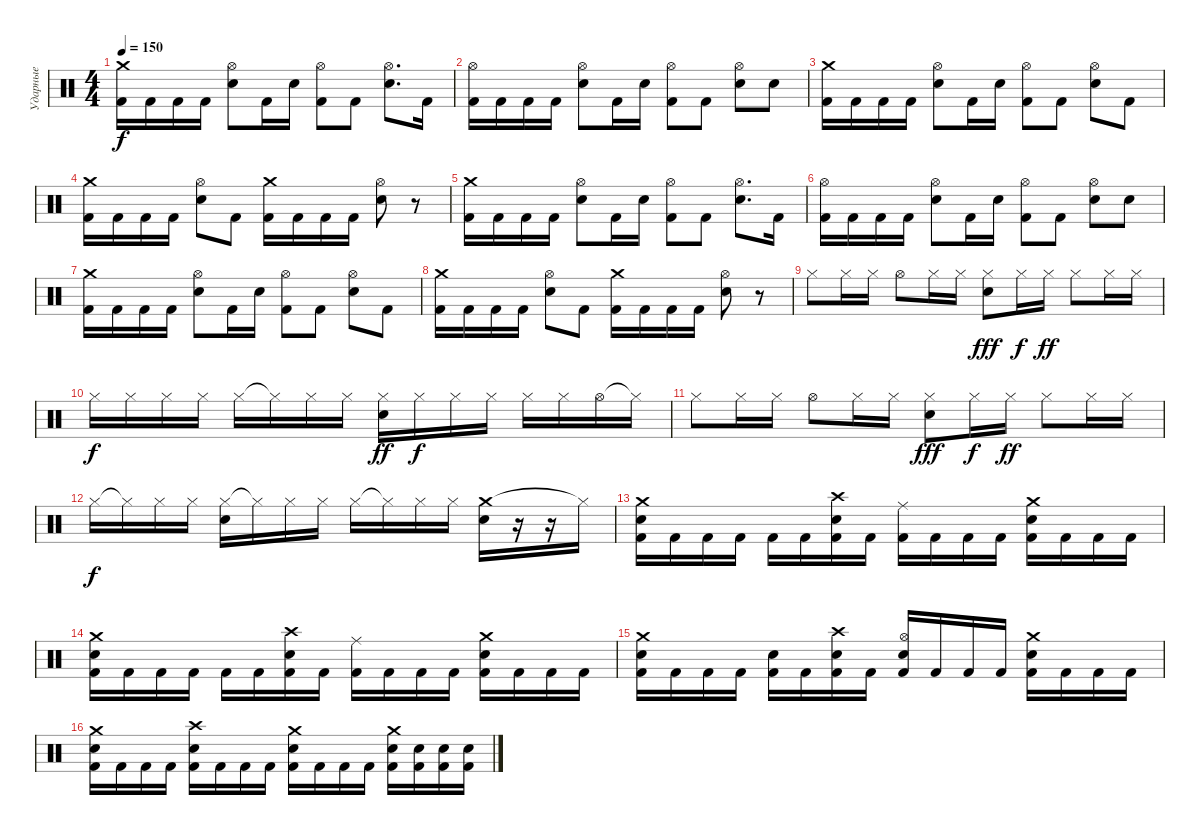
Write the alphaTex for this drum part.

\track ("Ударные" "Ударные") {instrument percussion}
\staff {score}
\articulation defaults
\ts (4 4)
\tempo 150
\clef neutral
\ks c
("Crash medium (hit)" "Kick (hit) 2").16{dy f} "Kick (hit) 2".16 "Kick (hit) 2".16 "Kick (hit) 2".16 ("Hi-Hat (open)" "Snare (hit) 2").8 "Kick (hit) 2".16 "Snare (hit) 2".16 ("Hi-Hat (open)" "Kick (hit) 2").8 "Kick (hit) 2".8 ("Hi-Hat (open)" "Snare (hit) 2").8{d} "Kick (hit) 2".16 |
("Hi-Hat (open)" "Kick (hit) 2").16 "Kick (hit) 2".16 "Kick (hit) 2".16 "Kick (hit) 2".16 ("Hi-Hat (open)" "Snare (hit) 2").8 "Kick (hit) 2".16 "Snare (hit) 2".16 ("Hi-Hat (open)" "Kick (hit) 2").8 "Kick (hit) 2".8 ("Hi-Hat (open)" "Snare (hit) 2").8 "Snare (hit) 2".8 |
("Crash medium (hit)" "Kick (hit) 2").16 "Kick (hit) 2".16 "Kick (hit) 2".16 "Kick (hit) 2".16 ("Hi-Hat (open)" "Snare (hit) 2").8 "Kick (hit) 2".16 "Snare (hit) 2".16 ("Hi-Hat (open)" "Kick (hit) 2").8 "Kick (hit) 2".8 ("Hi-Hat (open)" "Snare (hit) 2").8 "Kick (hit) 2".8 |
("Crash medium (hit)" "Kick (hit) 2").16 "Kick (hit) 2".16 "Kick (hit) 2".16 "Kick (hit) 2".16 ("Hi-Hat (open)" "Snare (hit) 2").8 "Kick (hit) 2".8 ("Crash medium (hit)" "Kick (hit) 2").16 "Kick (hit) 2".16 "Kick (hit) 2".16 "Kick (hit) 2".16 ("Hi-Hat (open)" "Snare (hit) 2").8 r.8 |
("Crash medium (hit)" "Kick (hit) 2").16 "Kick (hit) 2".16 "Kick (hit) 2".16 "Kick (hit) 2".16 ("Hi-Hat (open)" "Snare (hit) 2").8 "Kick (hit) 2".16 "Snare (hit) 2".16 ("Hi-Hat (open)" "Kick (hit) 2").8 "Kick (hit) 2".8 ("Hi-Hat (open)" "Snare (hit) 2").8{d} "Kick (hit) 2".16 |
("Hi-Hat (open)" "Kick (hit) 2").16 "Kick (hit) 2".16 "Kick (hit) 2".16 "Kick (hit) 2".16 ("Hi-Hat (open)" "Snare (hit) 2").8 "Kick (hit) 2".16 "Snare (hit) 2".16 ("Hi-Hat (open)" "Kick (hit) 2").8 "Kick (hit) 2".8 ("Hi-Hat (open)" "Snare (hit) 2").8 "Snare (hit) 2".8 |
("Crash medium (hit)" "Kick (hit) 2").16 "Kick (hit) 2".16 "Kick (hit) 2".16 "Kick (hit) 2".16 ("Hi-Hat (open)" "Snare (hit) 2").8 "Kick (hit) 2".16 "Snare (hit) 2".16 ("Hi-Hat (open)" "Kick (hit) 2").8 "Kick (hit) 2".8 ("Hi-Hat (open)" "Snare (hit) 2").8 "Kick (hit) 2".8 |
("Crash medium (hit)" "Kick (hit) 2").16 "Kick (hit) 2".16 "Kick (hit) 2".16 "Kick (hit) 2".16 ("Hi-Hat (open)" "Snare (hit) 2").8 "Kick (hit) 2".8 ("Crash medium (hit)" "Kick (hit) 2").16 "Kick (hit) 2".16 "Kick (hit) 2".16 "Kick (hit) 2".16 ("Hi-Hat (open)" "Snare (hit) 2").8 r.8 |
"Hi-Hat (closed)".8 "Hi-Hat (closed)".16 "Hi-Hat (closed)".16 "Hi-Hat (open)".8 "Hi-Hat (closed)".16 "Hi-Hat (closed)".16 ("Hi-Hat (closed)" "Snare (hit) 2").8{dy fff} "Hi-Hat (closed)".16{dy f} "Hi-Hat (closed)".16{dy ff} "Hi-Hat (closed)".8 "Hi-Hat (closed)".16 "Hi-Hat (closed)".16 |
"Hi-Hat (closed)".16{dy f} "Hi-Hat (closed)".16 "Hi-Hat (closed)".16 "Hi-Hat (closed)".16 "Hi-Hat (closed)".16 "Hi-Hat (closed)"{t}.16 "Hi-Hat (closed)".16 "Hi-Hat (closed)".16 ("Hi-Hat (closed)" "Snare (hit) 2").16{dy ff} "Hi-Hat (closed)".16{dy f} "Hi-Hat (closed)".16 "Hi-Hat (closed)".16 "Hi-Hat (closed)".16 "Hi-Hat (closed)".16 "Hi-Hat (open)".16 "Hi-Hat (closed)"{t}.16 |
"Hi-Hat (closed)".8 "Hi-Hat (closed)".16 "Hi-Hat (closed)".16 "Hi-Hat (open)".8 "Hi-Hat (closed)".16 "Hi-Hat (closed)".16 ("Hi-Hat (closed)" "Snare (hit) 2").8{dy fff} "Hi-Hat (closed)".16{dy f} "Hi-Hat (closed)".16{dy ff} "Hi-Hat (closed)".8 "Hi-Hat (closed)".16 "Hi-Hat (closed)".16 |
"Hi-Hat (closed)".16{dy f} "Hi-Hat (closed)"{t}.16 "Hi-Hat (closed)".16 "Hi-Hat (closed)".16 ("Hi-Hat (closed)" "Snare (hit) 2").16 "Hi-Hat (closed)"{t}.16 "Hi-Hat (closed)".16 "Hi-Hat (closed)".16 "Hi-Hat (closed)".16 "Hi-Hat (closed)"{t}.16 "Hi-Hat (closed)".16 "Hi-Hat (closed)".16 ("Crash medium (hit)" "Snare (hit) 2").16 r.16 r.16 "Hi-Hat (closed)"{t}.16 |
("Crash medium (hit)" "Snare (hit) 2" "Kick (hit) 2").16 "Kick (hit) 2".16 "Kick (hit) 2".16 "Kick (hit) 2".16 "Kick (hit) 2".16 "Kick (hit) 2".16 ("Crash high (hit)" "Snare (hit) 2" "Kick (hit) 2").16 "Kick (hit) 2".16 ("Ride (middle)" "Kick (hit) 2").16 "Kick (hit) 2".16 "Kick (hit) 2".16 "Kick (hit) 2".16 ("Crash medium (hit)" "Snare (hit) 2" "Kick (hit) 2").16 "Kick (hit) 2".16 "Kick (hit) 2".16 "Kick (hit) 2".16 |
("Crash medium (hit)" "Snare (hit) 2" "Kick (hit) 2").16 "Kick (hit) 2".16 "Kick (hit) 2".16 "Kick (hit) 2".16 "Kick (hit) 2".16 "Kick (hit) 2".16 ("Crash high (hit)" "Snare (hit) 2" "Kick (hit) 2").16 "Kick (hit) 2".16 ("Ride (middle)" "Kick (hit) 2").16 "Kick (hit) 2".16 "Kick (hit) 2".16 "Kick (hit) 2".16 ("Crash medium (hit)" "Snare (hit) 2" "Kick (hit) 2").16 "Kick (hit) 2".16 "Kick (hit) 2".16 "Kick (hit) 2".16 |
("Crash medium (hit)" "Snare (hit) 2" "Kick (hit) 2").16 "Kick (hit) 2".16 "Kick (hit) 2".16 "Kick (hit) 2".16 ("Snare (hit) 2" "Kick (hit) 2").16 "Kick (hit) 2".16 ("Crash high (hit)" "Snare (hit) 2" "Kick (hit) 2").16 "Kick (hit) 2".16 ("Hi-Hat (open)" "Snare (hit) 2" "Kick (hit) 2").16 "Kick (hit) 2".16 "Kick (hit) 2".16 "Kick (hit) 2".16 ("Crash medium (hit)" "Snare (hit) 2" "Kick (hit) 2").16 "Kick (hit) 2".16 "Kick (hit) 2".16 "Kick (hit) 2".16 |
("Crash medium (hit)" "Snare (hit) 2" "Kick (hit) 2").16 "Kick (hit) 2".16 "Kick (hit) 2".16 "Kick (hit) 2".16 ("Crash high (hit)" "Snare (hit) 2" "Kick (hit) 2").16 "Kick (hit) 2".16 "Kick (hit) 2".16 "Kick (hit) 2".16 ("Crash medium (hit)" "Snare (hit) 2" "Kick (hit) 2").16 "Kick (hit) 2".16 "Kick (hit) 2".16 "Kick (hit) 2".16 ("Crash medium (hit)" "Snare (hit) 2" "Kick (hit) 2").16 ("Snare (hit) 2" "Kick (hit) 2").16 ("Snare (hit) 2" "Kick (hit) 2").16 ("Snare (hit) 2" "Kick (hit) 2").16
